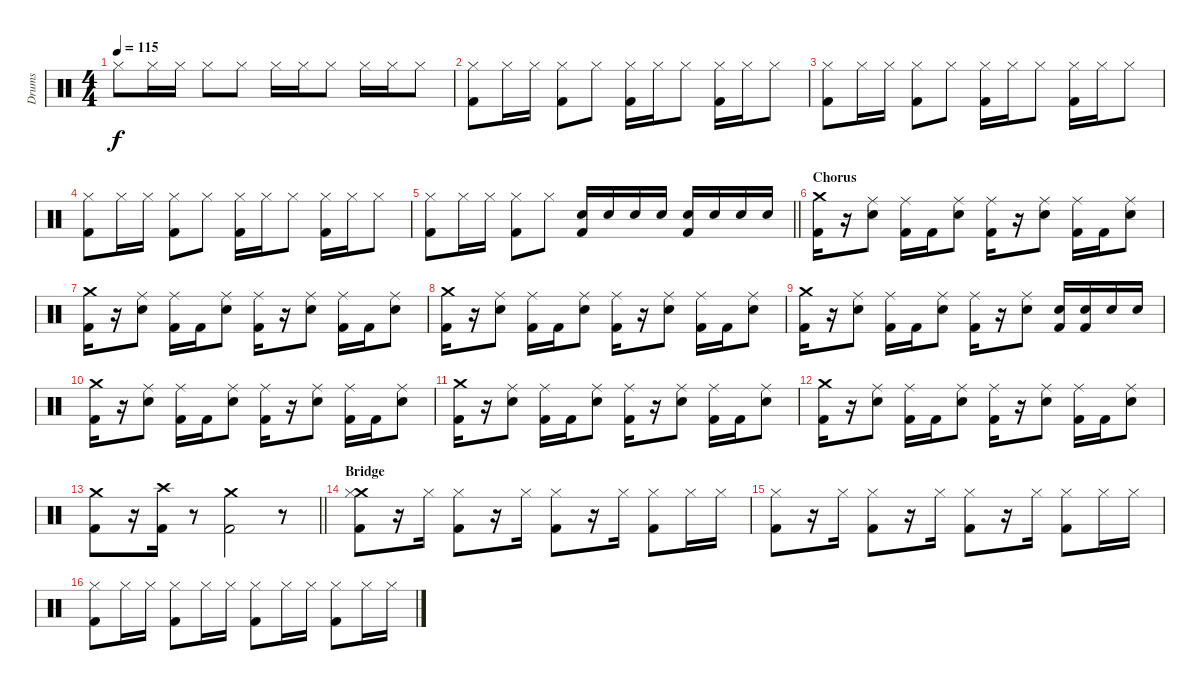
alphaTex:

\track ("Drums" "Drums") {instrument percussion}
\staff {score}
\articulation defaults
\ts (4 4)
\tempo 115
\clef neutral
\ks c "Hi-Hat (closed)".8{dy f} "Hi-Hat (closed)".16 "Hi-Hat (closed)".16 "Hi-Hat (closed)".8 "Hi-Hat (closed)".8 "Hi-Hat (closed)".16 "Hi-Hat (closed)".16 "Hi-Hat (closed)".8 "Hi-Hat (closed)".16 "Hi-Hat (closed)".16 "Hi-Hat (closed)".8
|
("Hi-Hat (closed)" "Kick (hit) 2").8 "Hi-Hat (closed)".16 "Hi-Hat (closed)".16 ("Hi-Hat (closed)" "Kick (hit) 2").8 "Hi-Hat (closed)".8 ("Hi-Hat (closed)" "Kick (hit) 2").16 "Hi-Hat (closed)".16 "Hi-Hat (closed)".8 ("Hi-Hat (closed)" "Kick (hit) 2").16 "Hi-Hat (closed)".16 "Hi-Hat (closed)".8 |
("Hi-Hat (closed)" "Kick (hit) 2").8 "Hi-Hat (closed)".16 "Hi-Hat (closed)".16 ("Hi-Hat (closed)" "Kick (hit) 2").8 "Hi-Hat (closed)".8 ("Hi-Hat (closed)" "Kick (hit) 2").16 "Hi-Hat (closed)".16 "Hi-Hat (closed)".8 ("Hi-Hat (closed)" "Kick (hit) 2").16 "Hi-Hat (closed)".16 "Hi-Hat (closed)".8 |
("Hi-Hat (closed)" "Kick (hit) 2").8 "Hi-Hat (closed)".16 "Hi-Hat (closed)".16 ("Hi-Hat (closed)" "Kick (hit) 2").8 "Hi-Hat (closed)".8 ("Hi-Hat (closed)" "Kick (hit) 2").16 "Hi-Hat (closed)".16 "Hi-Hat (closed)".8 ("Hi-Hat (closed)" "Kick (hit) 2").16 "Hi-Hat (closed)".16 "Hi-Hat (closed)".8 |
\barLineRight lightlight
("Hi-Hat (closed)" "Kick (hit) 2").8 "Hi-Hat (closed)".16 "Hi-Hat (closed)".16 ("Hi-Hat (closed)" "Kick (hit) 2").8 "Hi-Hat (closed)".8 ("Electric Snare (hit)" "Kick (hit) 2").16 "Electric Snare (hit)".16 "Electric Snare (hit)".16 "Electric Snare (hit)".16 ("Electric Snare (hit)" "Kick (hit) 2").16 "Electric Snare (hit)".16 "Electric Snare (hit)".16 "Electric Snare (hit)".16 |
\section ("" "Chorus")
("Crash medium (hit)" "Kick (hit) 2").16 r.16 ("Ride (middle)" "Electric Snare (hit)").8 ("Ride (middle)" "Kick (hit) 2").16 "Kick (hit) 2".16 ("Ride (middle)" "Electric Snare (hit)").8 ("Ride (middle)" "Kick (hit) 2").16 r.16 ("Ride (middle)" "Electric Snare (hit)").8 ("Ride (middle)" "Kick (hit) 2").16 "Kick (hit) 2".16 ("Ride (middle)" "Electric Snare (hit)").8 |
("Crash medium (hit)" "Kick (hit) 2").16 r.16 ("Ride (middle)" "Electric Snare (hit)").8 ("Ride (middle)" "Kick (hit) 2").16 "Kick (hit) 2".16 ("Ride (middle)" "Electric Snare (hit)").8 ("Ride (middle)" "Kick (hit) 2").16 r.16 ("Ride (middle)" "Electric Snare (hit)").8 ("Ride (middle)" "Kick (hit) 2").16 "Kick (hit) 2".16 ("Ride (middle)" "Electric Snare (hit)").8 |
("Crash medium (hit)" "Kick (hit) 2").16 r.16 ("Ride (middle)" "Electric Snare (hit)").8 ("Ride (middle)" "Kick (hit) 2").16 "Kick (hit) 2".16 ("Ride (middle)" "Electric Snare (hit)").8 ("Ride (middle)" "Kick (hit) 2").16 r.16 ("Ride (middle)" "Electric Snare (hit)").8 ("Ride (middle)" "Kick (hit) 2").16 "Kick (hit) 2".16 ("Ride (middle)" "Electric Snare (hit)").8 |
("Crash medium (hit)" "Kick (hit) 2").16 r.16 ("Ride (middle)" "Electric Snare (hit)").8 ("Ride (middle)" "Kick (hit) 2").16 "Kick (hit) 2".16 ("Ride (middle)" "Electric Snare (hit)").8 ("Ride (middle)" "Kick (hit) 2").16 r.16 ("Ride (middle)" "Electric Snare (hit)").8 ("Electric Snare (hit)" "Kick (hit) 2").16 ("Electric Snare (hit)" "Kick (hit) 2").16 "Electric Snare (hit)".16 "Electric Snare (hit)".16 |
("Crash medium (hit)" "Kick (hit) 2").16 r.16 ("Ride (middle)" "Electric Snare (hit)").8 ("Ride (middle)" "Kick (hit) 2").16 "Kick (hit) 2".16 ("Ride (middle)" "Electric Snare (hit)").8 ("Ride (middle)" "Kick (hit) 2").16 r.16 ("Ride (middle)" "Electric Snare (hit)").8 ("Ride (middle)" "Kick (hit) 2").16 "Kick (hit) 2".16 ("Ride (middle)" "Electric Snare (hit)").8 |
("Crash medium (hit)" "Kick (hit) 2").16 r.16 ("Ride (middle)" "Electric Snare (hit)").8 ("Ride (middle)" "Kick (hit) 2").16 "Kick (hit) 2".16 ("Ride (middle)" "Electric Snare (hit)").8 ("Ride (middle)" "Kick (hit) 2").16 r.16 ("Ride (middle)" "Electric Snare (hit)").8 ("Ride (middle)" "Kick (hit) 2").16 "Kick (hit) 2".16 ("Ride (middle)" "Electric Snare (hit)").8 |
("Crash medium (hit)" "Kick (hit) 2").16 r.16 ("Ride (middle)" "Electric Snare (hit)").8 ("Ride (middle)" "Kick (hit) 2").16 "Kick (hit) 2".16 ("Ride (middle)" "Electric Snare (hit)").8 ("Ride (middle)" "Kick (hit) 2").16 r.16 ("Ride (middle)" "Electric Snare (hit)").8 ("Ride (middle)" "Kick (hit) 2").16 "Kick (hit) 2".16 ("Ride (middle)" "Electric Snare (hit)").8 |
\barLineRight lightlight
("Crash medium (hit)" "Kick (hit) 2").8 r.16 ("Crash high (hit)" "Kick (hit) 2").16 r.8 ("Crash medium (hit)" "Kick (hit) 2").2 r.8 |
\section ("" "Bridge")
("Crash medium (hit)" "Hi-Hat (closed)" "Kick (hit) 2").8 r.16 "Hi-Hat (closed)".16 ("Hi-Hat (closed)" "Kick (hit) 2").8 r.16 "Hi-Hat (closed)".16 ("Hi-Hat (closed)" "Kick (hit) 2").8 r.16 "Hi-Hat (closed)".16 ("Hi-Hat (closed)" "Kick (hit) 2").8 "Hi-Hat (closed)".16 "Hi-Hat (closed)".16 |
("Hi-Hat (closed)" "Kick (hit) 2").8 r.16 "Hi-Hat (closed)".16 ("Hi-Hat (closed)" "Kick (hit) 2").8 r.16 "Hi-Hat (closed)".16 ("Hi-Hat (closed)" "Kick (hit) 2").8 r.16 "Hi-Hat (closed)".16 ("Hi-Hat (closed)" "Kick (hit) 2").8 "Hi-Hat (closed)".16 "Hi-Hat (closed)".16 |
("Hi-Hat (closed)" "Kick (hit) 2").8 "Hi-Hat (closed)".16 "Hi-Hat (closed)".16 ("Hi-Hat (closed)" "Kick (hit) 2").8 "Hi-Hat (closed)".16 "Hi-Hat (closed)".16 ("Hi-Hat (closed)" "Kick (hit) 2").8 "Hi-Hat (closed)".16 "Hi-Hat (closed)".16 ("Hi-Hat (closed)" "Kick (hit) 2").8 "Hi-Hat (closed)".16 "Hi-Hat (closed)".16
